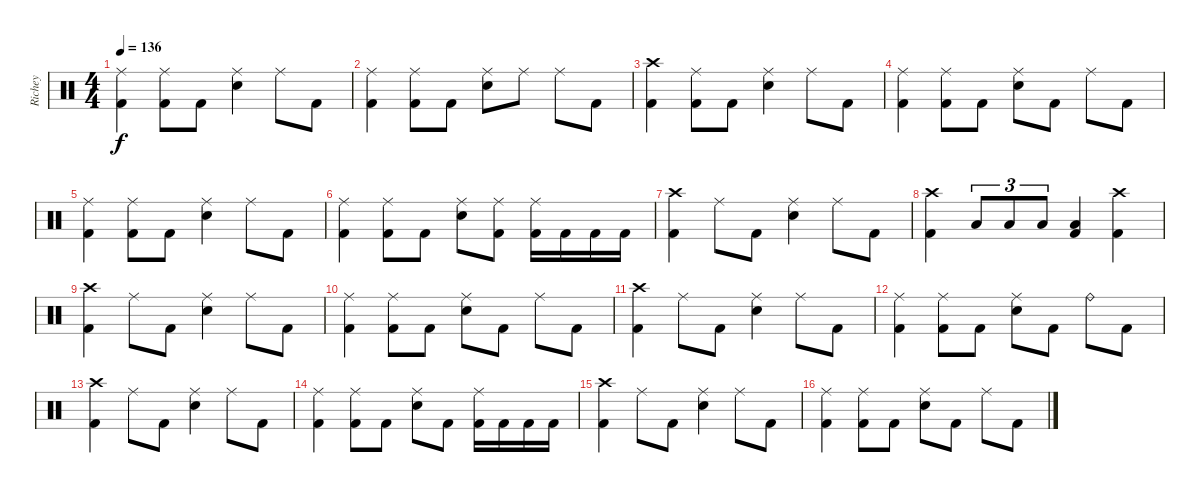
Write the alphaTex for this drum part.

\track ("Richey" "Richey") {instrument percussion}
\staff {score}
\articulation defaults
\ts (4 4)
\tempo 136
\clef neutral
\ks c
("Ride (middle)" "Kick (hit) 2").4{dy f} ("Ride (middle)" "Kick (hit) 2").8 "Kick (hit) 2".8 ("Ride (middle)" "Snare (hit) 2").4 "Ride (middle)".8 "Kick (hit) 2".8 |
("Ride (middle)" "Kick (hit) 2").4 ("Ride (middle)" "Kick (hit) 2").8 "Kick (hit) 2".8 ("Ride (middle)" "Snare (hit) 2").8 "Ride (middle)".8 "Ride (middle)".8 "Kick (hit) 2".8 |
("Crash high (hit)" "Kick (hit) 2").4 ("Ride (middle)" "Kick (hit) 2").8 "Kick (hit) 2".8 ("Ride (middle)" "Snare (hit) 2").4 "Ride (middle)".8 "Kick (hit) 2".8 |
("Ride (middle)" "Kick (hit) 2").4 ("Ride (middle)" "Kick (hit) 2").8 "Kick (hit) 2".8 ("Ride (middle)" "Snare (hit) 2").8 "Kick (hit) 2".8 "Ride (middle)".8 "Kick (hit) 2".8 |
("Ride (middle)" "Kick (hit) 2").4 ("Ride (middle)" "Kick (hit) 2").8 "Kick (hit) 2".8 ("Ride (middle)" "Snare (hit) 2").4 "Ride (middle)".8 "Kick (hit) 2".8 |
("Ride (middle)" "Kick (hit) 2").4 ("Ride (middle)" "Kick (hit) 2").8 "Kick (hit) 2".8 ("Ride (middle)" "Snare (hit) 2").8 ("Ride (middle)" "Kick (hit) 2").8 ("Ride (middle)" "Kick (hit) 2").16 "Kick (hit) 2".16 "Kick (hit) 2".16 "Kick (hit) 2".16 |
("Crash high (hit)" "Kick (hit) 2").4 "Ride (middle)".8 "Kick (hit) 2".8 ("Ride (middle)" "Snare (hit) 2").4 "Ride (middle)".8 "Kick (hit) 2".8 |
("Crash high (hit)" "Kick (hit) 2").4 "Low Tom (hit)".8{tu (3 2)} "Low Tom (hit)".8{tu (3 2)} "Low Tom (hit)".8{tu (3 2)} ("Low Tom (hit)" "Kick (hit) 2").4 ("Crash high (hit)" "Kick (hit) 2").4 |
("Crash high (hit)" "Kick (hit) 2").4 "Ride (middle)".8 "Kick (hit) 2".8 ("Ride (middle)" "Snare (hit) 2").4 "Ride (middle)".8 "Kick (hit) 2".8 |
("Ride (middle)" "Kick (hit) 2").4 ("Ride (middle)" "Kick (hit) 2").8 "Kick (hit) 2".8 ("Ride (middle)" "Snare (hit) 2").8 "Kick (hit) 2".8 "Ride (middle)".8 "Kick (hit) 2".8 |
("Crash high (hit)" "Kick (hit) 2").4 "Ride (middle)".8 "Kick (hit) 2".8 ("Ride (middle)" "Snare (hit) 2").4 "Ride (middle)".8 "Kick (hit) 2".8 |
("Ride (middle)" "Kick (hit) 2").4 ("Ride (middle)" "Kick (hit) 2").8 "Kick (hit) 2".8 ("Ride (middle)" "Snare (hit) 2").8 "Kick (hit) 2".8 "Ride (bell)".8 "Kick (hit) 2".8 |
("Crash high (hit)" "Kick (hit) 2").4 "Ride (middle)".8 "Kick (hit) 2".8 ("Ride (middle)" "Snare (hit) 2").4 "Ride (middle)".8 "Kick (hit) 2".8 |
("Ride (middle)" "Kick (hit) 2").4 ("Ride (middle)" "Kick (hit) 2").8 "Kick (hit) 2".8 ("Ride (middle)" "Snare (hit) 2").8 "Kick (hit) 2".8 ("Ride (middle)" "Kick (hit) 2").16 "Kick (hit) 2".16 "Kick (hit) 2".16 "Kick (hit) 2".16 |
("Crash high (hit)" "Kick (hit) 2").4 "Ride (middle)".8 "Kick (hit) 2".8 ("Ride (middle)" "Snare (hit) 2").4 "Ride (middle)".8 "Kick (hit) 2".8 |
("Ride (middle)" "Kick (hit) 2").4 ("Ride (middle)" "Kick (hit) 2").8 "Kick (hit) 2".8 ("Ride (middle)" "Snare (hit) 2").8 "Kick (hit) 2".8 "Ride (middle)".8 "Kick (hit) 2".8
